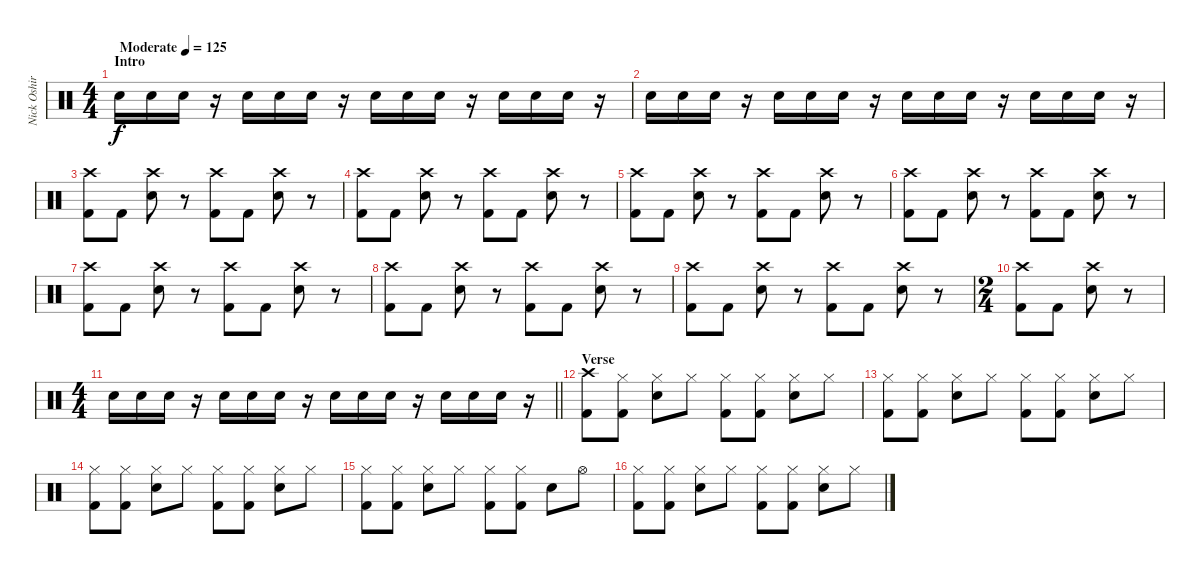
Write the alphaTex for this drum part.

\track ("Nick Oshiro" "Nick Oshir") {instrument percussion}
\staff {score}
\articulation defaults
\ts (4 4)
\section ("" "Intro")
\tempo (125 "Moderate")
\clef neutral
\ks c "Electric Snare (hit)".16{dy f} "Electric Snare (hit)".16 "Electric Snare (hit)".16
r.16 "Electric Snare (hit)".16 "Electric Snare (hit)".16 "Electric Snare (hit)".16 r.16 "Electric Snare (hit)".16 "Electric Snare (hit)".16 "Electric Snare (hit)".16 r.16 "Electric Snare (hit)".16 "Electric Snare (hit)".16 "Electric Snare (hit)".16 r.16 |
"Electric Snare (hit)".16 "Electric Snare (hit)".16 "Electric Snare (hit)".16 r.16 "Electric Snare (hit)".16 "Electric Snare (hit)".16 "Electric Snare (hit)".16 r.16 "Electric Snare (hit)".16 "Electric Snare (hit)".16 "Electric Snare (hit)".16 r.16 "Electric Snare (hit)".16 "Electric Snare (hit)".16 "Electric Snare (hit)".16 r.16 |
("Crash high (hit)" "Kick (hit) 2").8 "Kick (hit) 2".8 ("Crash high (hit)" "Electric Snare (hit)").8 r.8 ("Crash high (hit)" "Kick (hit) 2").8 "Kick (hit) 2".8 ("Crash high (hit)" "Electric Snare (hit)").8 r.8 |
("Crash high (hit)" "Kick (hit) 2").8 "Kick (hit) 2".8 ("Crash high (hit)" "Electric Snare (hit)").8 r.8 ("Crash high (hit)" "Kick (hit) 2").8 "Kick (hit) 2".8 ("Crash high (hit)" "Electric Snare (hit)").8 r.8 |
("Crash high (hit)" "Kick (hit) 2").8 "Kick (hit) 2".8 ("Crash high (hit)" "Electric Snare (hit)").8 r.8 ("Crash high (hit)" "Kick (hit) 2").8 "Kick (hit) 2".8 ("Crash high (hit)" "Electric Snare (hit)").8 r.8 |
("Crash high (hit)" "Kick (hit) 2").8 "Kick (hit) 2".8 ("Crash high (hit)" "Electric Snare (hit)").8 r.8 ("Crash high (hit)" "Kick (hit) 2").8 "Kick (hit) 2".8 ("Crash high (hit)" "Electric Snare (hit)").8 r.8 |
("Crash high (hit)" "Kick (hit) 2").8 "Kick (hit) 2".8 ("Crash high (hit)" "Electric Snare (hit)").8 r.8 ("Crash high (hit)" "Kick (hit) 2").8 "Kick (hit) 2".8 ("Crash high (hit)" "Electric Snare (hit)").8 r.8 |
("Crash high (hit)" "Kick (hit) 2").8 "Kick (hit) 2".8 ("Crash high (hit)" "Electric Snare (hit)").8 r.8 ("Crash high (hit)" "Kick (hit) 2").8 "Kick (hit) 2".8 ("Crash high (hit)" "Electric Snare (hit)").8 r.8 |
("Crash high (hit)" "Kick (hit) 2").8 "Kick (hit) 2".8 ("Crash high (hit)" "Electric Snare (hit)").8 r.8 ("Crash high (hit)" "Kick (hit) 2").8 "Kick (hit) 2".8 ("Crash high (hit)" "Electric Snare (hit)").8 r.8 |
\ts (2 4)
("Crash high (hit)" "Kick (hit) 2").8 "Kick (hit) 2".8 ("Crash high (hit)" "Electric Snare (hit)").8 r.8 |
\ts (4 4)
\barLineRight lightlight "Electric Snare (hit)".16 "Electric Snare (hit)".16 "Electric Snare (hit)".16
r.16 "Electric Snare (hit)".16 "Electric Snare (hit)".16 "Electric Snare (hit)".16 r.16 "Electric Snare (hit)".16 "Electric Snare (hit)".16 "Electric Snare (hit)".16 r.16 "Electric Snare (hit)".16 "Electric Snare (hit)".16 "Electric Snare (hit)".16 r.16 |
\section ("" "Verse")
("Crash high (hit)" "Kick (hit) 2").8 ("Hi-Hat (closed)" "Kick (hit) 2").8 ("Hi-Hat (closed)" "Electric Snare (hit)").8 "Hi-Hat (closed)".8 ("Hi-Hat (closed)" "Kick (hit) 2").8 ("Hi-Hat (closed)" "Kick (hit) 2").8 ("Hi-Hat (closed)" "Electric Snare (hit)").8 "Hi-Hat (closed)".8 |
("Hi-Hat (closed)" "Kick (hit) 2").8 ("Hi-Hat (closed)" "Kick (hit) 2").8 ("Hi-Hat (closed)" "Electric Snare (hit)").8 "Hi-Hat (closed)".8 ("Hi-Hat (closed)" "Kick (hit) 2").8 ("Hi-Hat (closed)" "Kick (hit) 2").8 ("Hi-Hat (closed)" "Electric Snare (hit)").8 "Hi-Hat (closed)".8 |
("Hi-Hat (closed)" "Kick (hit) 2").8 ("Hi-Hat (closed)" "Kick (hit) 2").8 ("Hi-Hat (closed)" "Electric Snare (hit)").8 "Hi-Hat (closed)".8 ("Hi-Hat (closed)" "Kick (hit) 2").8 ("Hi-Hat (closed)" "Kick (hit) 2").8 ("Hi-Hat (closed)" "Electric Snare (hit)").8 "Hi-Hat (closed)".8 |
("Hi-Hat (closed)" "Kick (hit) 2").8 ("Hi-Hat (closed)" "Kick (hit) 2").8 ("Hi-Hat (closed)" "Electric Snare (hit)").8 "Hi-Hat (closed)".8 ("Hi-Hat (closed)" "Kick (hit) 2").8 ("Hi-Hat (closed)" "Kick (hit) 2").8 "Electric Snare (hit)".8 "Hi-Hat (open)".8 |
("Hi-Hat (closed)" "Kick (hit) 2").8 ("Hi-Hat (closed)" "Kick (hit) 2").8 ("Hi-Hat (closed)" "Electric Snare (hit)").8 "Hi-Hat (closed)".8 ("Hi-Hat (closed)" "Kick (hit) 2").8 ("Hi-Hat (closed)" "Kick (hit) 2").8 ("Hi-Hat (closed)" "Electric Snare (hit)").8 "Hi-Hat (closed)".8
